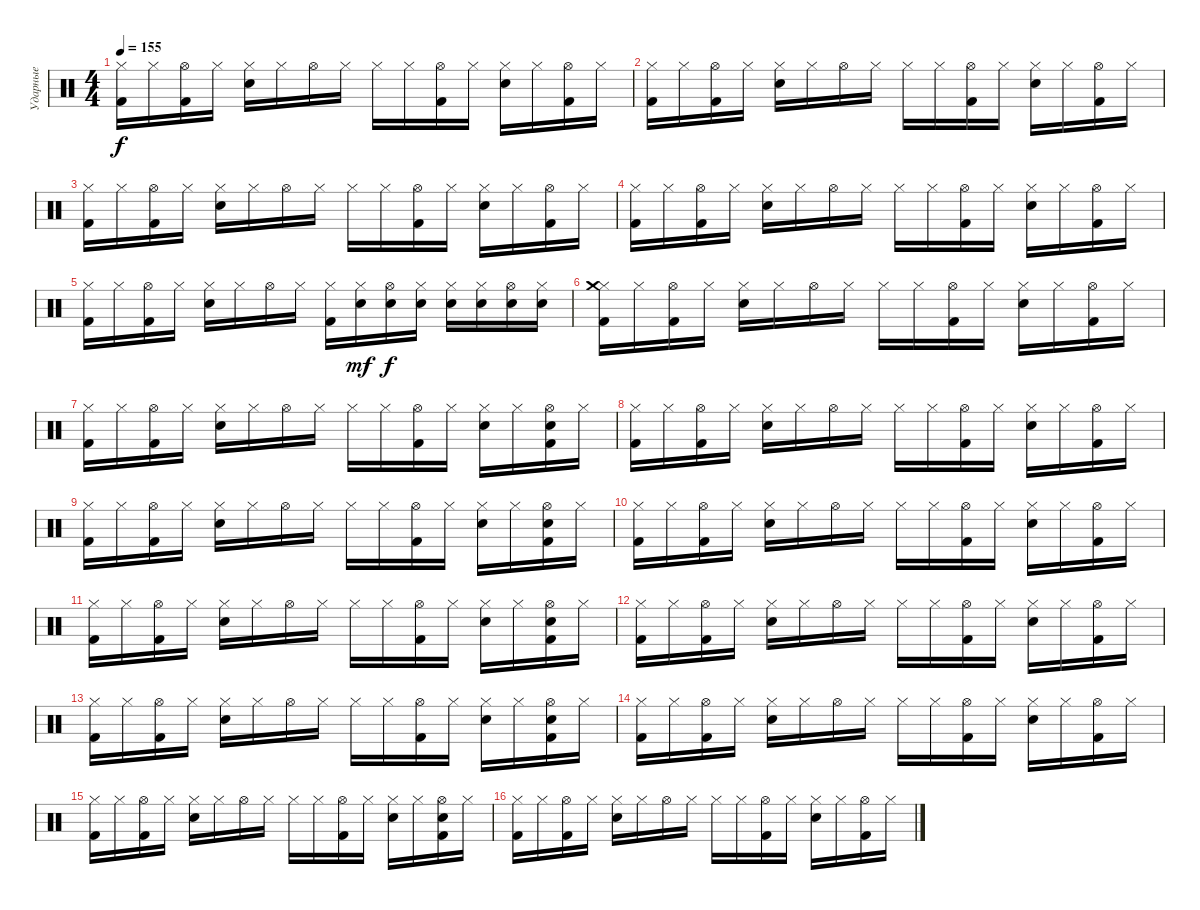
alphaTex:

\track ("Ударные" "Ударные") {instrument percussion}
\staff {score}
\articulation defaults
\ts (4 4)
\tempo 155
\clef neutral
\ks c
("Hi-Hat (closed)" "Kick (hit) 2").16{dy f} "Hi-Hat (closed)".16 ("Hi-Hat (open)" "Kick (hit) 2").16 "Hi-Hat (closed)".16 ("Hi-Hat (closed)" "Electric Snare (hit)").16 "Hi-Hat (closed)".16 "Hi-Hat (open)".16 "Hi-Hat (closed)".16 "Hi-Hat (closed)".16 "Hi-Hat (closed)".16 ("Hi-Hat (open)" "Kick (hit) 2").16 "Hi-Hat (closed)".16 ("Hi-Hat (closed)" "Electric Snare (hit)").16 "Hi-Hat (closed)".16 ("Hi-Hat (open)" "Kick (hit) 2").16 "Hi-Hat (closed)".16 |
("Hi-Hat (closed)" "Kick (hit) 2").16 "Hi-Hat (closed)".16 ("Hi-Hat (open)" "Kick (hit) 2").16 "Hi-Hat (closed)".16 ("Hi-Hat (closed)" "Electric Snare (hit)").16 "Hi-Hat (closed)".16 "Hi-Hat (open)".16 "Hi-Hat (closed)".16 "Hi-Hat (closed)".16 "Hi-Hat (closed)".16 ("Hi-Hat (open)" "Kick (hit) 2").16 "Hi-Hat (closed)".16 ("Hi-Hat (closed)" "Electric Snare (hit)").16 "Hi-Hat (closed)".16 ("Hi-Hat (open)" "Kick (hit) 2").16 "Hi-Hat (closed)".16 |
("Hi-Hat (closed)" "Kick (hit) 2").16 "Hi-Hat (closed)".16 ("Hi-Hat (open)" "Kick (hit) 2").16 "Hi-Hat (closed)".16 ("Hi-Hat (closed)" "Electric Snare (hit)").16 "Hi-Hat (closed)".16 "Hi-Hat (open)".16 "Hi-Hat (closed)".16 "Hi-Hat (closed)".16 "Hi-Hat (closed)".16 ("Hi-Hat (open)" "Kick (hit) 2").16 "Hi-Hat (closed)".16 ("Hi-Hat (closed)" "Electric Snare (hit)").16 "Hi-Hat (closed)".16 ("Hi-Hat (open)" "Kick (hit) 2").16 "Hi-Hat (closed)".16 |
("Hi-Hat (closed)" "Kick (hit) 2").16 "Hi-Hat (closed)".16 ("Hi-Hat (open)" "Kick (hit) 2").16 "Hi-Hat (closed)".16 ("Hi-Hat (closed)" "Electric Snare (hit)").16 "Hi-Hat (closed)".16 "Hi-Hat (open)".16 "Hi-Hat (closed)".16 "Hi-Hat (closed)".16 "Hi-Hat (closed)".16 ("Hi-Hat (open)" "Kick (hit) 2").16 "Hi-Hat (closed)".16 ("Hi-Hat (closed)" "Electric Snare (hit)").16 "Hi-Hat (closed)".16 ("Hi-Hat (open)" "Kick (hit) 2").16 "Hi-Hat (closed)".16 |
("Hi-Hat (closed)" "Kick (hit) 2").16 "Hi-Hat (closed)".16 ("Hi-Hat (open)" "Kick (hit) 2").16 "Hi-Hat (closed)".16 ("Hi-Hat (closed)" "Electric Snare (hit)").16 "Hi-Hat (closed)".16 "Hi-Hat (open)".16 "Hi-Hat (closed)".16 ("Hi-Hat (closed)" "Kick (hit) 2").16 ("Hi-Hat (closed)" "Electric Snare (hit)").16{dy mf} ("Hi-Hat (open)" "Electric Snare (hit)").16{dy f} ("Hi-Hat (closed)" "Electric Snare (hit)").16 ("Hi-Hat (closed)" "Electric Snare (hit)").16 ("Hi-Hat (closed)" "Electric Snare (hit)").16 ("Hi-Hat (open)" "Electric Snare (hit)").16 ("Hi-Hat (closed)" "Electric Snare (hit)").16 |
("Hi-Hat (closed)" "Kick (hit) 2" "Crash medium (hit)").16 "Hi-Hat (closed)".16 ("Hi-Hat (open)" "Kick (hit) 2").16 "Hi-Hat (closed)".16 ("Hi-Hat (closed)" "Electric Snare (hit)").16 "Hi-Hat (closed)".16 "Hi-Hat (open)".16 "Hi-Hat (closed)".16 "Hi-Hat (closed)".16 "Hi-Hat (closed)".16 ("Hi-Hat (open)" "Kick (hit) 2").16 "Hi-Hat (closed)".16 ("Hi-Hat (closed)" "Electric Snare (hit)").16 "Hi-Hat (closed)".16 ("Hi-Hat (open)" "Kick (hit) 2").16 "Hi-Hat (closed)".16 |
("Hi-Hat (closed)" "Kick (hit) 2").16 "Hi-Hat (closed)".16 ("Hi-Hat (open)" "Kick (hit) 2").16 "Hi-Hat (closed)".16 ("Hi-Hat (closed)" "Electric Snare (hit)").16 "Hi-Hat (closed)".16 "Hi-Hat (open)".16 "Hi-Hat (closed)".16 "Hi-Hat (closed)".16 "Hi-Hat (closed)".16 ("Hi-Hat (open)" "Kick (hit) 2").16 "Hi-Hat (closed)".16 ("Hi-Hat (closed)" "Electric Snare (hit)").16 "Hi-Hat (closed)".16 ("Hi-Hat (open)" "Kick (hit) 2" "Electric Snare (hit)").16 "Hi-Hat (closed)".16 |
("Hi-Hat (closed)" "Kick (hit) 2").16 "Hi-Hat (closed)".16 ("Hi-Hat (open)" "Kick (hit) 2").16 "Hi-Hat (closed)".16 ("Hi-Hat (closed)" "Electric Snare (hit)").16 "Hi-Hat (closed)".16 "Hi-Hat (open)".16 "Hi-Hat (closed)".16 "Hi-Hat (closed)".16 "Hi-Hat (closed)".16 ("Hi-Hat (open)" "Kick (hit) 2").16 "Hi-Hat (closed)".16 ("Hi-Hat (closed)" "Electric Snare (hit)").16 "Hi-Hat (closed)".16 ("Hi-Hat (open)" "Kick (hit) 2").16 "Hi-Hat (closed)".16 |
("Hi-Hat (closed)" "Kick (hit) 2").16 "Hi-Hat (closed)".16 ("Hi-Hat (open)" "Kick (hit) 2").16 "Hi-Hat (closed)".16 ("Hi-Hat (closed)" "Electric Snare (hit)").16 "Hi-Hat (closed)".16 "Hi-Hat (open)".16 "Hi-Hat (closed)".16 "Hi-Hat (closed)".16 "Hi-Hat (closed)".16 ("Hi-Hat (open)" "Kick (hit) 2").16 "Hi-Hat (closed)".16 ("Hi-Hat (closed)" "Electric Snare (hit)").16 "Hi-Hat (closed)".16 ("Hi-Hat (open)" "Kick (hit) 2" "Electric Snare (hit)").16 "Hi-Hat (closed)".16 |
("Hi-Hat (closed)" "Kick (hit) 2").16 "Hi-Hat (closed)".16 ("Hi-Hat (open)" "Kick (hit) 2").16 "Hi-Hat (closed)".16 ("Hi-Hat (closed)" "Electric Snare (hit)").16 "Hi-Hat (closed)".16 "Hi-Hat (open)".16 "Hi-Hat (closed)".16 "Hi-Hat (closed)".16 "Hi-Hat (closed)".16 ("Hi-Hat (open)" "Kick (hit) 2").16 "Hi-Hat (closed)".16 ("Hi-Hat (closed)" "Electric Snare (hit)").16 "Hi-Hat (closed)".16 ("Hi-Hat (open)" "Kick (hit) 2").16 "Hi-Hat (closed)".16 |
("Hi-Hat (closed)" "Kick (hit) 2").16 "Hi-Hat (closed)".16 ("Hi-Hat (open)" "Kick (hit) 2").16 "Hi-Hat (closed)".16 ("Hi-Hat (closed)" "Electric Snare (hit)").16 "Hi-Hat (closed)".16 "Hi-Hat (open)".16 "Hi-Hat (closed)".16 "Hi-Hat (closed)".16 "Hi-Hat (closed)".16 ("Hi-Hat (open)" "Kick (hit) 2").16 "Hi-Hat (closed)".16 ("Hi-Hat (closed)" "Electric Snare (hit)").16 "Hi-Hat (closed)".16 ("Hi-Hat (open)" "Kick (hit) 2" "Electric Snare (hit)").16 "Hi-Hat (closed)".16 |
("Hi-Hat (closed)" "Kick (hit) 2").16 "Hi-Hat (closed)".16 ("Hi-Hat (open)" "Kick (hit) 2").16 "Hi-Hat (closed)".16 ("Hi-Hat (closed)" "Electric Snare (hit)").16 "Hi-Hat (closed)".16 "Hi-Hat (open)".16 "Hi-Hat (closed)".16 "Hi-Hat (closed)".16 "Hi-Hat (closed)".16 ("Hi-Hat (open)" "Kick (hit) 2").16 "Hi-Hat (closed)".16 ("Hi-Hat (closed)" "Electric Snare (hit)").16 "Hi-Hat (closed)".16 ("Hi-Hat (open)" "Kick (hit) 2").16 "Hi-Hat (closed)".16 |
("Hi-Hat (closed)" "Kick (hit) 2").16 "Hi-Hat (closed)".16 ("Hi-Hat (open)" "Kick (hit) 2").16 "Hi-Hat (closed)".16 ("Hi-Hat (closed)" "Electric Snare (hit)").16 "Hi-Hat (closed)".16 "Hi-Hat (open)".16 "Hi-Hat (closed)".16 "Hi-Hat (closed)".16 "Hi-Hat (closed)".16 ("Hi-Hat (open)" "Kick (hit) 2").16 "Hi-Hat (closed)".16 ("Hi-Hat (closed)" "Electric Snare (hit)").16 "Hi-Hat (closed)".16 ("Hi-Hat (open)" "Kick (hit) 2" "Electric Snare (hit)").16 "Hi-Hat (closed)".16 |
("Hi-Hat (closed)" "Kick (hit) 2").16 "Hi-Hat (closed)".16 ("Hi-Hat (open)" "Kick (hit) 2").16 "Hi-Hat (closed)".16 ("Hi-Hat (closed)" "Electric Snare (hit)").16 "Hi-Hat (closed)".16 "Hi-Hat (open)".16 "Hi-Hat (closed)".16 "Hi-Hat (closed)".16 "Hi-Hat (closed)".16 ("Hi-Hat (open)" "Kick (hit) 2").16 "Hi-Hat (closed)".16 ("Hi-Hat (closed)" "Electric Snare (hit)").16 "Hi-Hat (closed)".16 ("Hi-Hat (open)" "Kick (hit) 2").16 "Hi-Hat (closed)".16 |
("Hi-Hat (closed)" "Kick (hit) 2").16 "Hi-Hat (closed)".16 ("Hi-Hat (open)" "Kick (hit) 2").16 "Hi-Hat (closed)".16 ("Hi-Hat (closed)" "Electric Snare (hit)").16 "Hi-Hat (closed)".16 "Hi-Hat (open)".16 "Hi-Hat (closed)".16 "Hi-Hat (closed)".16 "Hi-Hat (closed)".16 ("Hi-Hat (open)" "Kick (hit) 2").16 "Hi-Hat (closed)".16 ("Hi-Hat (closed)" "Electric Snare (hit)").16 "Hi-Hat (closed)".16 ("Hi-Hat (open)" "Kick (hit) 2" "Electric Snare (hit)").16 "Hi-Hat (closed)".16 |
("Hi-Hat (closed)" "Kick (hit) 2").16 "Hi-Hat (closed)".16 ("Hi-Hat (open)" "Kick (hit) 2").16 "Hi-Hat (closed)".16 ("Hi-Hat (closed)" "Electric Snare (hit)").16 "Hi-Hat (closed)".16 "Hi-Hat (open)".16 "Hi-Hat (closed)".16 "Hi-Hat (closed)".16 "Hi-Hat (closed)".16 ("Hi-Hat (open)" "Kick (hit) 2").16 "Hi-Hat (closed)".16 ("Hi-Hat (closed)" "Electric Snare (hit)").16 "Hi-Hat (closed)".16 ("Hi-Hat (open)" "Kick (hit) 2").16 "Hi-Hat (closed)".16
